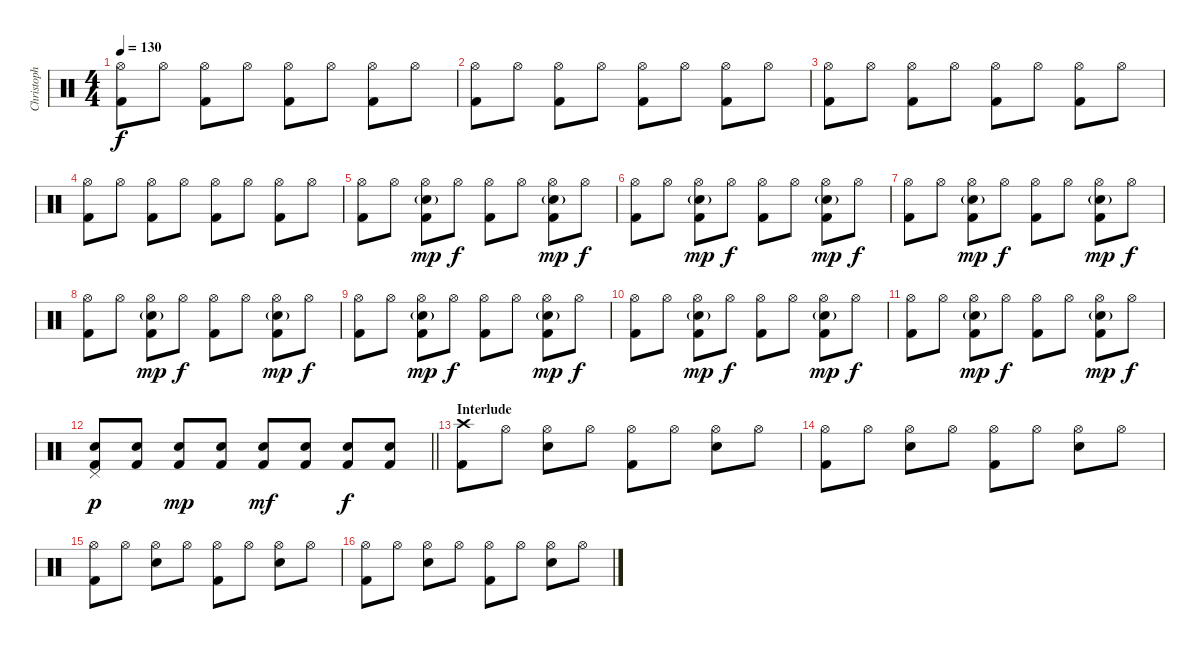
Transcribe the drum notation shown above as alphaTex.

\track ("Christoph \"Doom\" Schneider" "Christoph ") {instrument percussion}
\staff {score}
\articulation defaults
\ts (4 4)
\tempo 130
\clef neutral
\ks c
("Hi-Hat (open)" "Kick (hit) 2").8{dy f} "Hi-Hat (open)".8 ("Hi-Hat (open)" "Kick (hit) 2").8 "Hi-Hat (open)".8 ("Hi-Hat (open)" "Kick (hit) 2").8 "Hi-Hat (open)".8 ("Hi-Hat (open)" "Kick (hit) 2").8 "Hi-Hat (open)".8 |
("Hi-Hat (open)" "Kick (hit) 2").8 "Hi-Hat (open)".8 ("Hi-Hat (open)" "Kick (hit) 2").8 "Hi-Hat (open)".8 ("Hi-Hat (open)" "Kick (hit) 2").8 "Hi-Hat (open)".8 ("Hi-Hat (open)" "Kick (hit) 2").8 "Hi-Hat (open)".8 |
("Hi-Hat (open)" "Kick (hit) 2").8 "Hi-Hat (open)".8 ("Hi-Hat (open)" "Kick (hit) 2").8 "Hi-Hat (open)".8 ("Hi-Hat (open)" "Kick (hit) 2").8 "Hi-Hat (open)".8 ("Hi-Hat (open)" "Kick (hit) 2").8 "Hi-Hat (open)".8 |
("Hi-Hat (open)" "Kick (hit) 2").8 "Hi-Hat (open)".8 ("Hi-Hat (open)" "Kick (hit) 2").8 "Hi-Hat (open)".8 ("Hi-Hat (open)" "Kick (hit) 2").8 "Hi-Hat (open)".8 ("Hi-Hat (open)" "Kick (hit) 2").8 "Hi-Hat (open)".8 |
("Hi-Hat (open)" "Kick (hit) 2").8 "Hi-Hat (open)".8 ("Hi-Hat (open)" "Electric Snare (hit)"{g} "Kick (hit) 2").8{dy mp} "Hi-Hat (open)".8{dy f} ("Hi-Hat (open)" "Kick (hit) 2").8 "Hi-Hat (open)".8 ("Hi-Hat (open)" "Electric Snare (hit)"{g} "Kick (hit) 2").8{dy mp} "Hi-Hat (open)".8{dy f} |
("Hi-Hat (open)" "Kick (hit) 2").8 "Hi-Hat (open)".8 ("Hi-Hat (open)" "Electric Snare (hit)"{g} "Kick (hit) 2").8{dy mp} "Hi-Hat (open)".8{dy f} ("Hi-Hat (open)" "Kick (hit) 2").8 "Hi-Hat (open)".8 ("Hi-Hat (open)" "Electric Snare (hit)"{g} "Kick (hit) 2").8{dy mp} "Hi-Hat (open)".8{dy f} |
("Hi-Hat (open)" "Kick (hit) 2").8 "Hi-Hat (open)".8 ("Hi-Hat (open)" "Electric Snare (hit)"{g} "Kick (hit) 2").8{dy mp} "Hi-Hat (open)".8{dy f} ("Hi-Hat (open)" "Kick (hit) 2").8 "Hi-Hat (open)".8 ("Hi-Hat (open)" "Electric Snare (hit)"{g} "Kick (hit) 2").8{dy mp} "Hi-Hat (open)".8{dy f} |
("Hi-Hat (open)" "Kick (hit) 2").8 "Hi-Hat (open)".8 ("Hi-Hat (open)" "Electric Snare (hit)"{g} "Kick (hit) 2").8{dy mp} "Hi-Hat (open)".8{dy f} ("Hi-Hat (open)" "Kick (hit) 2").8 "Hi-Hat (open)".8 ("Hi-Hat (open)" "Electric Snare (hit)"{g} "Kick (hit) 2").8{dy mp} "Hi-Hat (open)".8{dy f} |
("Hi-Hat (open)" "Kick (hit) 2").8 "Hi-Hat (open)".8 ("Hi-Hat (open)" "Electric Snare (hit)"{g} "Kick (hit) 2").8{dy mp} "Hi-Hat (open)".8{dy f} ("Hi-Hat (open)" "Kick (hit) 2").8 "Hi-Hat (open)".8 ("Hi-Hat (open)" "Electric Snare (hit)"{g} "Kick (hit) 2").8{dy mp} "Hi-Hat (open)".8{dy f} |
("Hi-Hat (open)" "Kick (hit) 2").8 "Hi-Hat (open)".8 ("Hi-Hat (open)" "Electric Snare (hit)"{g} "Kick (hit) 2").8{dy mp} "Hi-Hat (open)".8{dy f} ("Hi-Hat (open)" "Kick (hit) 2").8 "Hi-Hat (open)".8 ("Hi-Hat (open)" "Electric Snare (hit)"{g} "Kick (hit) 2").8{dy mp} "Hi-Hat (open)".8{dy f} |
("Hi-Hat (open)" "Kick (hit) 2").8 "Hi-Hat (open)".8 ("Hi-Hat (open)" "Electric Snare (hit)"{g} "Kick (hit) 2").8{dy mp} "Hi-Hat (open)".8{dy f} ("Hi-Hat (open)" "Kick (hit) 2").8 "Hi-Hat (open)".8 ("Hi-Hat (open)" "Electric Snare (hit)"{g} "Kick (hit) 2").8{dy mp} "Hi-Hat (open)".8{dy f} |
\barLineRight lightlight
("Pedal Hi-Hat (hit)" "Electric Snare (hit)" "Kick (hit) 2").8{dy p} ("Electric Snare (hit)" "Kick (hit) 2").8 ("Electric Snare (hit)" "Kick (hit) 2").8{dy mp} ("Electric Snare (hit)" "Kick (hit) 2").8 ("Electric Snare (hit)" "Kick (hit) 2").8{dy mf} ("Electric Snare (hit)" "Kick (hit) 2").8 ("Electric Snare (hit)" "Kick (hit) 2").8{dy f} ("Electric Snare (hit)" "Kick (hit) 2").8 |
\section ("" "Interlude")
("Crash high (hit)" "Kick (hit) 2").8 "Hi-Hat (open)".8 ("Hi-Hat (open)" "Electric Snare (hit)").8 "Hi-Hat (open)".8 ("Hi-Hat (open)" "Kick (hit) 2").8 "Hi-Hat (open)".8 ("Hi-Hat (open)" "Electric Snare (hit)").8 "Hi-Hat (open)".8 |
("Hi-Hat (open)" "Kick (hit) 2").8 "Hi-Hat (open)".8 ("Hi-Hat (open)" "Electric Snare (hit)").8 "Hi-Hat (open)".8 ("Hi-Hat (open)" "Kick (hit) 2").8 "Hi-Hat (open)".8 ("Hi-Hat (open)" "Electric Snare (hit)").8 "Hi-Hat (open)".8 |
("Hi-Hat (open)" "Kick (hit) 2").8 "Hi-Hat (open)".8 ("Hi-Hat (open)" "Electric Snare (hit)").8 "Hi-Hat (open)".8 ("Hi-Hat (open)" "Kick (hit) 2").8 "Hi-Hat (open)".8 ("Hi-Hat (open)" "Electric Snare (hit)").8 "Hi-Hat (open)".8 |
("Hi-Hat (open)" "Kick (hit) 2").8 "Hi-Hat (open)".8 ("Hi-Hat (open)" "Electric Snare (hit)").8 "Hi-Hat (open)".8 ("Hi-Hat (open)" "Kick (hit) 2").8 "Hi-Hat (open)".8 ("Hi-Hat (open)" "Electric Snare (hit)").8 "Hi-Hat (open)".8
